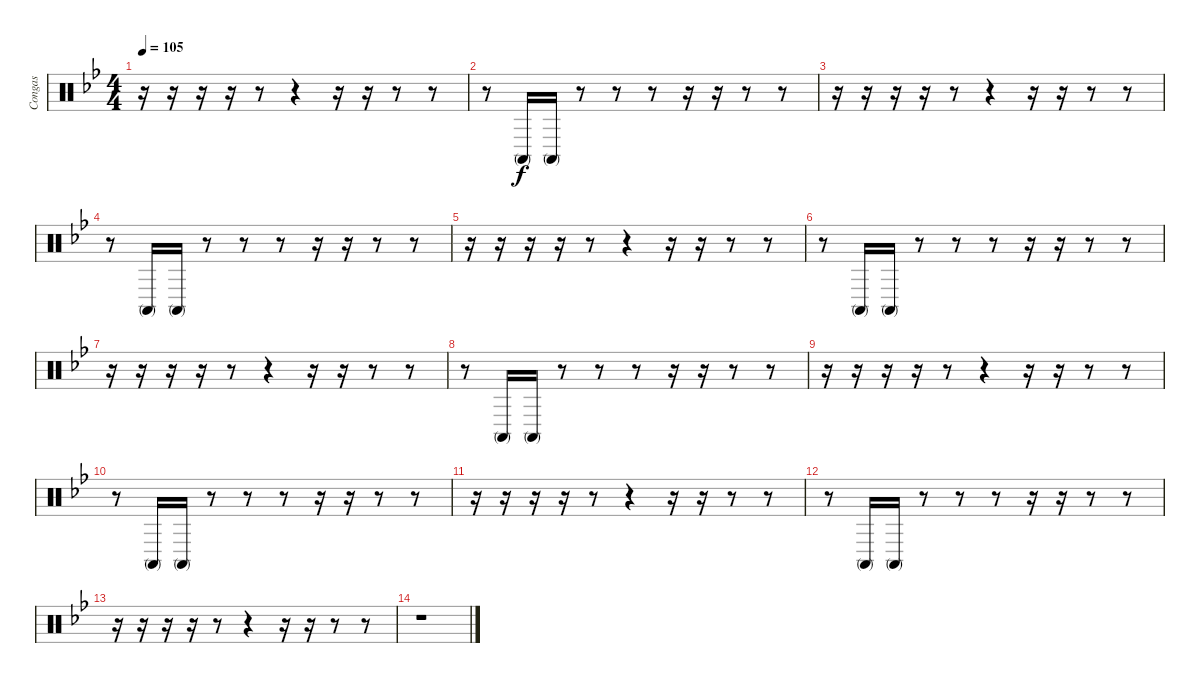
\track ("Congas" "Congas") {instrument percussion}
\staff {score}
\articulation defaults
\ts (4 4)
\tempo 105
\clef neutral
\ks gminor
r.16{dy f} r.16 r.16 r.16 r.8 r.4 r.16 r.16 r.8 r.8 |
r.8 "Conga high (mute)".16 "Conga high (mute)".16 r.8 r.8 r.8 r.16 r.16 r.8 r.8 |
r.16 r.16 r.16 r.16 r.8 r.4 r.16 r.16 r.8 r.8 |
r.8 "Conga high (mute)".16 "Conga high (mute)".16 r.8 r.8 r.8 r.16 r.16 r.8 r.8 |
r.16 r.16 r.16 r.16 r.8 r.4 r.16 r.16 r.8 r.8 |
r.8 "Conga high (mute)".16 "Conga high (mute)".16 r.8 r.8 r.8 r.16 r.16 r.8 r.8 |
r.16 r.16 r.16 r.16 r.8 r.4 r.16 r.16 r.8 r.8 |
r.8 "Conga high (mute)".16 "Conga high (mute)".16 r.8 r.8 r.8 r.16 r.16 r.8 r.8 |
r.16 r.16 r.16 r.16 r.8 r.4 r.16 r.16 r.8 r.8 |
r.8 "Conga high (mute)".16 "Conga high (mute)".16 r.8 r.8 r.8 r.16 r.16 r.8 r.8 |
r.16 r.16 r.16 r.16 r.8 r.4 r.16 r.16 r.8 r.8 |
r.8 "Conga high (mute)".16 "Conga high (mute)".16 r.8 r.8 r.8 r.16 r.16 r.8 r.8 |
r.16 r.16 r.16 r.16 r.8 r.4 r.16 r.16 r.8 r.8 |
r.1
